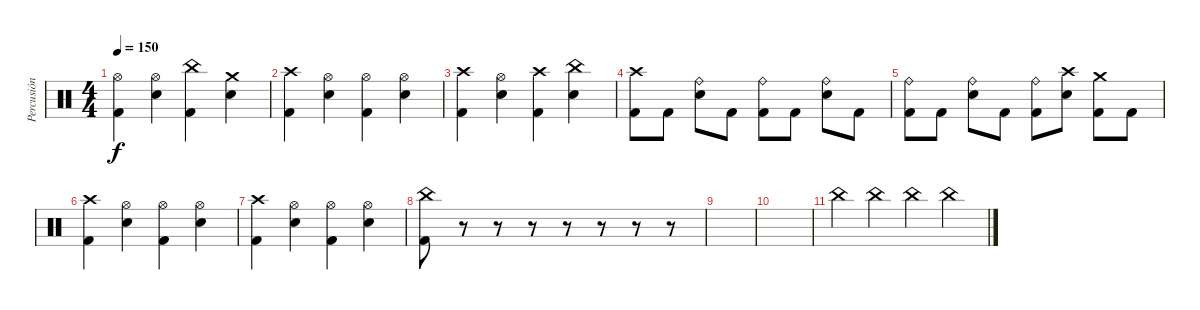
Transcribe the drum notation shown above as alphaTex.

\track ("Percusión" "Percusión") {instrument percussion}
\staff {score}
\articulation defaults
\ts (4 4)
\tempo 150
\clef neutral
\ks c
("Hi-Hat (open)" "Kick (hit) 2").4{dy f} ("Hi-Hat (open)" "Electric Snare (hit)").4 ("China (hit)" "Kick (hit) 2").4 ("Crash medium (hit)" "Electric Snare (hit)").4 |
("Crash high (hit)" "Kick (hit) 2").4 ("Hi-Hat (open)" "Electric Snare (hit)").4 ("Hi-Hat (open)" "Kick (hit) 2").4 ("Hi-Hat (open)" "Electric Snare (hit)").4 |
("Crash high (hit)" "Kick (hit) 2").4 ("Hi-Hat (open)" "Electric Snare (hit)").4 ("Crash high (hit)" "Kick (hit) 2").4 ("China (hit)" "Electric Snare (hit)").4 |
("Crash high (hit)" "Kick (hit) 2").8 "Kick (hit) 2".8 ("Ride (bell)" "Electric Snare (hit)").8 "Kick (hit) 2".8 ("Ride (bell)" "Kick (hit) 2").8 "Kick (hit) 2".8 ("Ride (bell)" "Electric Snare (hit)").8 "Kick (hit) 2".8 |
("Ride (bell)" "Kick (hit) 2").8 "Kick (hit) 2".8 ("Ride (bell)" "Electric Snare (hit)").8 "Kick (hit) 2".8 ("Ride (bell)" "Kick (hit) 2").8 ("Crash high (hit)" "Electric Snare (hit)").8 ("Crash medium (hit)" "Kick (hit) 2").8 "Kick (hit) 2".8 |
("Crash high (hit)" "Kick (hit) 2").4 ("Hi-Hat (open)" "Electric Snare (hit)").4 ("Hi-Hat (open)" "Kick (hit) 2").4 ("Hi-Hat (open)" "Electric Snare (hit)").4 |
("Crash high (hit)" "Kick (hit) 2").4 ("Hi-Hat (open)" "Electric Snare (hit)").4 ("Hi-Hat (open)" "Kick (hit) 2").4 ("Hi-Hat (open)" "Electric Snare (hit)").4 |
("China (hit)" "Kick (hit) 2").8 r.8 r.8 r.8 r.8 r.8 r.8 r.8 |
|
|
"China (hit)".4 "China (hit)".4 "China (hit)".4 "China (hit)".4
